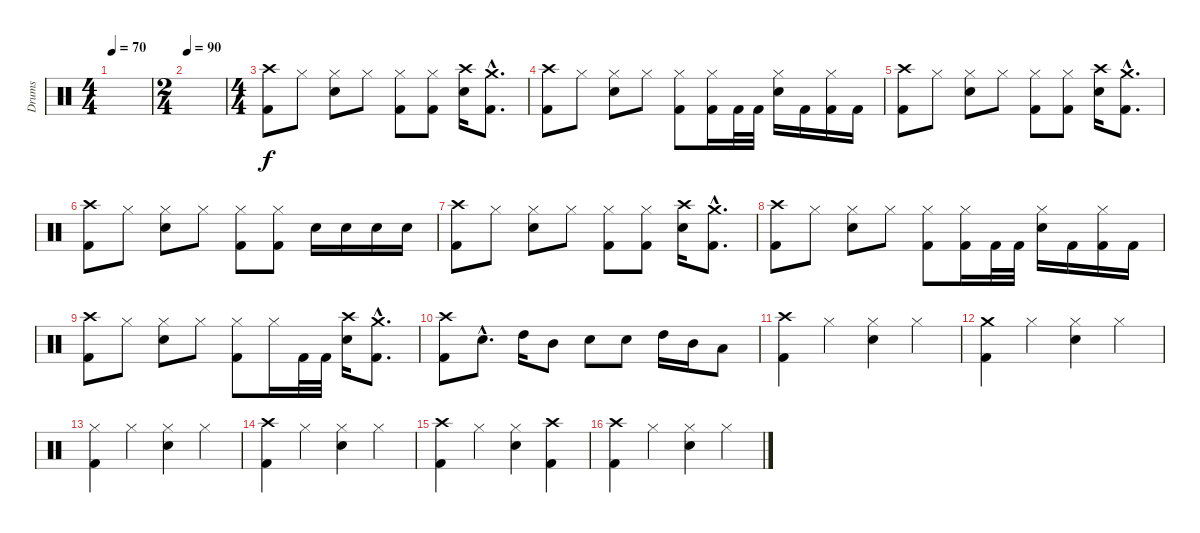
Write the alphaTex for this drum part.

\track ("Drums" "Drums") {instrument percussion}
\staff {score}
\articulation defaults
\ts (4 4)
\tempo 70
\clef neutral
\ks c
|
\ts (2 4)
\tempo 90
|
\ts (4 4)
("Crash high (hit)" "Kick (hit) 2").8 "Hi-Hat (closed)".8 ("Hi-Hat (closed)" "Snare (hit) 2").8 "Hi-Hat (closed)".8 ("Hi-Hat (closed)" "Kick (hit) 2").8 ("Hi-Hat (closed)" "Kick (hit) 2").8 ("Crash high (hit)" "Snare (hit) 2").16 ("Crash medium (hit)"{hac} "Kick (hit) 2"{hac}).8{d} |
("Crash high (hit)" "Kick (hit) 2").8 "Hi-Hat (closed)".8 ("Hi-Hat (closed)" "Snare (hit) 2").8 "Hi-Hat (closed)".8 ("Hi-Hat (closed)" "Kick (hit) 2").8 ("Hi-Hat (closed)" "Kick (hit) 2").16 "Kick (hit) 2".32 "Kick (hit) 2".32 ("Hi-Hat (closed)" "Snare (hit) 2").16 "Kick (hit) 2".16 ("Hi-Hat (closed)" "Kick (hit) 2").16 "Kick (hit) 2".16 |
("Crash high (hit)" "Kick (hit) 2").8 "Hi-Hat (closed)".8 ("Hi-Hat (closed)" "Snare (hit) 2").8 "Hi-Hat (closed)".8 ("Hi-Hat (closed)" "Kick (hit) 2").8 ("Hi-Hat (closed)" "Kick (hit) 2").8 ("Crash high (hit)" "Snare (hit) 2").16 ("Crash medium (hit)"{hac} "Kick (hit) 2"{hac}).8{d} |
("Crash high (hit)" "Kick (hit) 2").8 "Hi-Hat (closed)".8 ("Hi-Hat (closed)" "Snare (hit) 2").8 "Hi-Hat (closed)".8 ("Hi-Hat (closed)" "Kick (hit) 2").8 ("Hi-Hat (closed)" "Kick (hit) 2").8 "Snare (hit) 2".16 "Snare (hit) 2".16 "Snare (hit) 2".16 "Snare (hit) 2".16 |
("Crash high (hit)" "Kick (hit) 2").8 "Hi-Hat (closed)".8 ("Hi-Hat (closed)" "Snare (hit) 2").8 "Hi-Hat (closed)".8 ("Hi-Hat (closed)" "Kick (hit) 2").8 ("Hi-Hat (closed)" "Kick (hit) 2").8 ("Crash high (hit)" "Snare (hit) 2").16 ("Crash medium (hit)"{hac} "Kick (hit) 2"{hac}).8{d} |
("Crash high (hit)" "Kick (hit) 2").8 "Hi-Hat (closed)".8 ("Hi-Hat (closed)" "Snare (hit) 2").8 "Hi-Hat (closed)".8 ("Hi-Hat (closed)" "Kick (hit) 2").8 ("Hi-Hat (closed)" "Kick (hit) 2").16 "Kick (hit) 2".32 "Kick (hit) 2".32 ("Hi-Hat (closed)" "Snare (hit) 2").16 "Kick (hit) 2".16 ("Hi-Hat (closed)" "Kick (hit) 2").16 "Kick (hit) 2".16 |
("Crash high (hit)" "Kick (hit) 2").8 "Hi-Hat (closed)".8 ("Hi-Hat (closed)" "Snare (hit) 2").8 "Hi-Hat (closed)".8 ("Hi-Hat (closed)" "Kick (hit) 2").8 "Hi-Hat (closed)".16 "Kick (hit) 2".32 "Kick (hit) 2".32 ("Crash high (hit)" "Snare (hit) 2").16 ("Crash medium (hit)"{hac} "Kick (hit) 2"{hac}).8{d} |
("Crash high (hit)" "Kick (hit) 2").8 "Snare (hit) 2"{hac}.8{d} "High Tom (hit)".16 "Mid Tom (hit)".8 "Snare (hit) 2".8 "Snare (hit) 2".8 "High Tom (hit)".16 "Mid Tom (hit)".16 "Low Tom (hit)".8 |
("Crash high (hit)" "Kick (hit) 2").4 "Hi-Hat (closed)".4 ("Hi-Hat (closed)" "Snare (hit) 2").4 "Hi-Hat (closed)".4 |
("Crash medium (hit)" "Kick (hit) 2").4 "Hi-Hat (closed)".4 ("Hi-Hat (closed)" "Snare (hit) 2").4 "Hi-Hat (closed)".4 |
("Hi-Hat (closed)" "Kick (hit) 2").4 "Hi-Hat (closed)".4 ("Hi-Hat (closed)" "Snare (hit) 2").4 "Hi-Hat (closed)".4 |
("Crash high (hit)" "Kick (hit) 2").4 "Hi-Hat (closed)".4 ("Hi-Hat (closed)" "Snare (hit) 2").4 "Hi-Hat (closed)".4 |
("Crash high (hit)" "Kick (hit) 2").4 "Hi-Hat (closed)".4 ("Hi-Hat (closed)" "Snare (hit) 2").4 ("Crash high (hit)" "Kick (hit) 2").4 |
("Crash high (hit)" "Kick (hit) 2").4 "Hi-Hat (closed)".4 ("Hi-Hat (closed)" "Snare (hit) 2").4 "Hi-Hat (closed)".4
